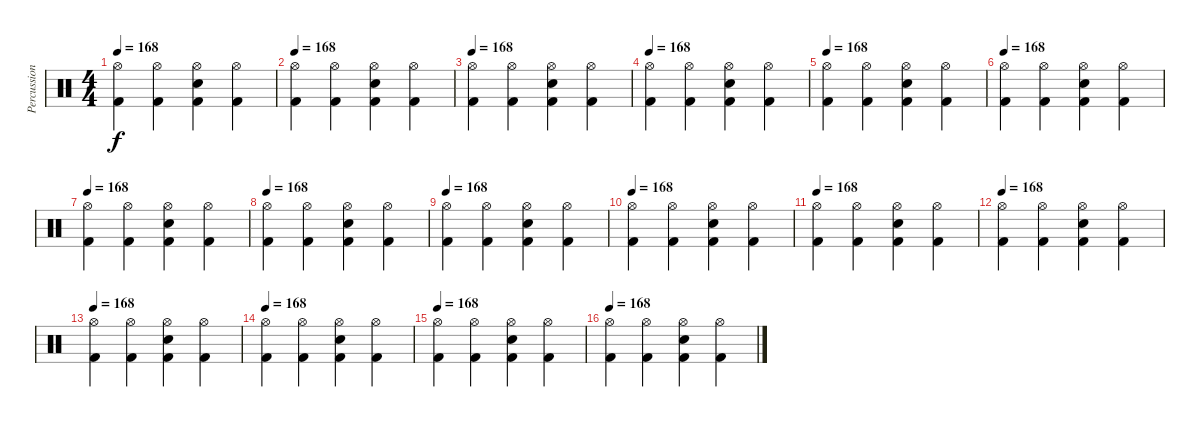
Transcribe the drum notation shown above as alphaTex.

\track ("Percussion" "Percussion") {instrument percussion}
\staff {score}
\articulation defaults
\ts (4 4)
\tempo 168
\clef neutral
\ks c
("Hi-Hat (open)" "Kick (hit) 2").4{dy f} ("Hi-Hat (open)" "Kick (hit) 2").4 ("Hi-Hat (open)" "Electric Snare (hit)" "Kick (hit) 2").4 ("Hi-Hat (open)" "Kick (hit) 2").4 |
\tempo 168
("Hi-Hat (open)" "Kick (hit) 2").4 ("Hi-Hat (open)" "Kick (hit) 2").4 ("Hi-Hat (open)" "Electric Snare (hit)" "Kick (hit) 2").4 ("Hi-Hat (open)" "Kick (hit) 2").4 |
\tempo 168
("Hi-Hat (open)" "Kick (hit) 2").4 ("Hi-Hat (open)" "Kick (hit) 2").4 ("Hi-Hat (open)" "Electric Snare (hit)" "Kick (hit) 2").4 ("Hi-Hat (open)" "Kick (hit) 2").4 |
\tempo 168
("Hi-Hat (open)" "Kick (hit) 2").4 ("Hi-Hat (open)" "Kick (hit) 2").4 ("Hi-Hat (open)" "Electric Snare (hit)" "Kick (hit) 2").4 ("Hi-Hat (open)" "Kick (hit) 2").4 |
\tempo 168
("Hi-Hat (open)" "Kick (hit) 2").4 ("Hi-Hat (open)" "Kick (hit) 2").4 ("Hi-Hat (open)" "Electric Snare (hit)" "Kick (hit) 2").4 ("Hi-Hat (open)" "Kick (hit) 2").4 |
\tempo 168
("Hi-Hat (open)" "Kick (hit) 2").4 ("Hi-Hat (open)" "Kick (hit) 2").4 ("Hi-Hat (open)" "Electric Snare (hit)" "Kick (hit) 2").4 ("Hi-Hat (open)" "Kick (hit) 2").4 |
\tempo 168
("Hi-Hat (open)" "Kick (hit) 2").4 ("Hi-Hat (open)" "Kick (hit) 2").4 ("Hi-Hat (open)" "Electric Snare (hit)" "Kick (hit) 2").4 ("Hi-Hat (open)" "Kick (hit) 2").4 |
\tempo 168
("Hi-Hat (open)" "Kick (hit) 2").4 ("Hi-Hat (open)" "Kick (hit) 2").4 ("Hi-Hat (open)" "Electric Snare (hit)" "Kick (hit) 2").4 ("Hi-Hat (open)" "Kick (hit) 2").4 |
\tempo 168
("Hi-Hat (open)" "Kick (hit) 2").4 ("Hi-Hat (open)" "Kick (hit) 2").4 ("Hi-Hat (open)" "Electric Snare (hit)" "Kick (hit) 2").4 ("Hi-Hat (open)" "Kick (hit) 2").4 |
\tempo 168
("Hi-Hat (open)" "Kick (hit) 2").4 ("Hi-Hat (open)" "Kick (hit) 2").4 ("Hi-Hat (open)" "Electric Snare (hit)" "Kick (hit) 2").4 ("Hi-Hat (open)" "Kick (hit) 2").4 |
\tempo 168
("Hi-Hat (open)" "Kick (hit) 2").4 ("Hi-Hat (open)" "Kick (hit) 2").4 ("Hi-Hat (open)" "Electric Snare (hit)" "Kick (hit) 2").4 ("Hi-Hat (open)" "Kick (hit) 2").4 |
\tempo 168
("Hi-Hat (open)" "Kick (hit) 2").4 ("Hi-Hat (open)" "Kick (hit) 2").4 ("Hi-Hat (open)" "Electric Snare (hit)" "Kick (hit) 2").4 ("Hi-Hat (open)" "Kick (hit) 2").4 |
\tempo 168
("Hi-Hat (open)" "Kick (hit) 2").4 ("Hi-Hat (open)" "Kick (hit) 2").4 ("Hi-Hat (open)" "Electric Snare (hit)" "Kick (hit) 2").4 ("Hi-Hat (open)" "Kick (hit) 2").4 |
\tempo 168
("Hi-Hat (open)" "Kick (hit) 2").4 ("Hi-Hat (open)" "Kick (hit) 2").4 ("Hi-Hat (open)" "Electric Snare (hit)" "Kick (hit) 2").4 ("Hi-Hat (open)" "Kick (hit) 2").4 |
\tempo 168
("Hi-Hat (open)" "Kick (hit) 2").4 ("Hi-Hat (open)" "Kick (hit) 2").4 ("Hi-Hat (open)" "Electric Snare (hit)" "Kick (hit) 2").4 ("Hi-Hat (open)" "Kick (hit) 2").4 |
\tempo 168
("Hi-Hat (open)" "Kick (hit) 2").4 ("Hi-Hat (open)" "Kick (hit) 2").4 ("Hi-Hat (open)" "Electric Snare (hit)" "Kick (hit) 2").4 ("Hi-Hat (open)" "Kick (hit) 2").4
